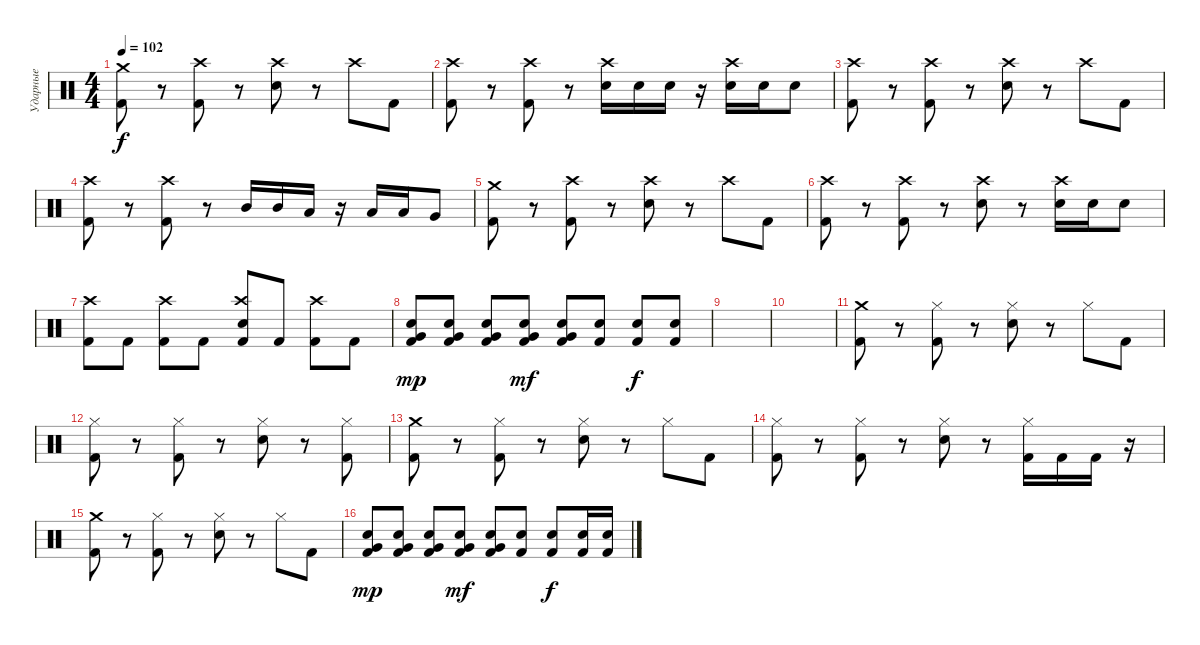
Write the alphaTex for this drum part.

\track ("Ударные" "Ударные") {instrument percussion}
\staff {score}
\articulation defaults
\ts (4 4)
\tempo 102
\clef neutral
\ks c
("Crash medium (hit)" "Kick (hit) 2").8{dy f} r.8 ("Crash high (hit)" "Kick (hit) 2").8 r.8 ("Crash high (hit)" "Electric Snare (hit)").8 r.8 "Crash high (hit)".8 "Kick (hit) 2".8 |
("Crash high (hit)" "Kick (hit) 2").8 r.8 ("Crash high (hit)" "Kick (hit) 2").8 r.8 ("Crash high (hit)" "Electric Snare (hit)").16 "Electric Snare (hit)".16 "Electric Snare (hit)".16 r.16 ("Crash high (hit)" "Electric Snare (hit)").16 "Electric Snare (hit)".16 "Electric Snare (hit)".8 |
("Crash high (hit)" "Kick (hit) 2").8 r.8 ("Crash high (hit)" "Kick (hit) 2").8 r.8 ("Crash high (hit)" "Electric Snare (hit)").8 r.8 "Crash high (hit)".8 "Kick (hit) 2".8 |
("Crash high (hit)" "Kick (hit) 2").8 r.8 ("Crash high (hit)" "Kick (hit) 2").8 r.8 "Mid Tom (hit)".16 "Mid Tom (hit)".16 "Low Tom (hit)".16 r.16 "Low Tom (hit)".16 "Low Tom (hit)".16 "Very Low Tom (hit)".8 |
("Crash medium (hit)" "Kick (hit) 2").8 r.8 ("Crash high (hit)" "Kick (hit) 2").8 r.8 ("Crash high (hit)" "Electric Snare (hit)").8 r.8 "Crash high (hit)".8 "Kick (hit) 2".8 |
("Crash high (hit)" "Kick (hit) 2").8 r.8 ("Crash high (hit)" "Kick (hit) 2").8 r.8 ("Crash high (hit)" "Electric Snare (hit)").8 r.8 ("Crash high (hit)" "Electric Snare (hit)").16 "Electric Snare (hit)".16 "Electric Snare (hit)".8 |
("Crash high (hit)" "Kick (hit) 2").8 "Kick (hit) 2".8 ("Crash high (hit)" "Kick (hit) 2").8 "Kick (hit) 2".8 ("Crash high (hit)" "Electric Snare (hit)" "Kick (hit) 2").8 "Kick (hit) 2".8 ("Crash high (hit)" "Kick (hit) 2").8 "Kick (hit) 2".8 |
("Kick (hit) 2" "Electric Snare (hit)" "Very Low Tom (hit)").8{dy mp} ("Kick (hit) 2" "Electric Snare (hit)" "Very Low Tom (hit)").8 ("Kick (hit) 2" "Electric Snare (hit)" "Very Low Tom (hit)").8 ("Kick (hit) 2" "Electric Snare (hit)" "Very Low Tom (hit)").8{dy mf} ("Kick (hit) 2" "Electric Snare (hit)" "Very Low Tom (hit)").8 ("Kick (hit) 2" "Electric Snare (hit)").8 ("Kick (hit) 2" "Electric Snare (hit)").8{dy f} ("Kick (hit) 2" "Electric Snare (hit)").8 |
|
|
("Crash medium (hit)" "Kick (hit) 2").8 r.8 ("Hi-Hat (closed)" "Kick (hit) 2").8 r.8 ("Hi-Hat (closed)" "Electric Snare (hit)").8 r.8 "Hi-Hat (closed)".8 "Kick (hit) 2".8 |
("Hi-Hat (closed)" "Kick (hit) 2").8 r.8 ("Hi-Hat (closed)" "Kick (hit) 2").8 r.8 ("Hi-Hat (closed)" "Electric Snare (hit)").8 r.8 ("Hi-Hat (closed)" "Kick (hit) 2").8 |
("Crash medium (hit)" "Kick (hit) 2").8 r.8 ("Hi-Hat (closed)" "Kick (hit) 2").8 r.8 ("Hi-Hat (closed)" "Electric Snare (hit)").8 r.8 "Hi-Hat (closed)".8 "Kick (hit) 2".8 |
("Hi-Hat (closed)" "Kick (hit) 2").8 r.8 ("Hi-Hat (closed)" "Kick (hit) 2").8 r.8 ("Hi-Hat (closed)" "Electric Snare (hit)").8 r.8 ("Hi-Hat (closed)" "Kick (hit) 2").16 "Kick (hit) 2".16 "Kick (hit) 2".16 r.16 |
("Crash medium (hit)" "Kick (hit) 2").8 r.8 ("Hi-Hat (closed)" "Kick (hit) 2").8 r.8 ("Hi-Hat (closed)" "Electric Snare (hit)").8 r.8 "Hi-Hat (closed)".8 "Kick (hit) 2".8 |
("Kick (hit) 2" "Electric Snare (hit)" "Very Low Tom (hit)").8{dy mp} ("Kick (hit) 2" "Electric Snare (hit)" "Very Low Tom (hit)").8 ("Kick (hit) 2" "Electric Snare (hit)" "Very Low Tom (hit)").8 ("Kick (hit) 2" "Electric Snare (hit)" "Very Low Tom (hit)").8{dy mf} ("Kick (hit) 2" "Electric Snare (hit)" "Very Low Tom (hit)").8 ("Kick (hit) 2" "Electric Snare (hit)").8 ("Kick (hit) 2" "Electric Snare (hit)").8{dy f} ("Kick (hit) 2" "Electric Snare (hit)").16 ("Kick (hit) 2" "Electric Snare (hit)").16
